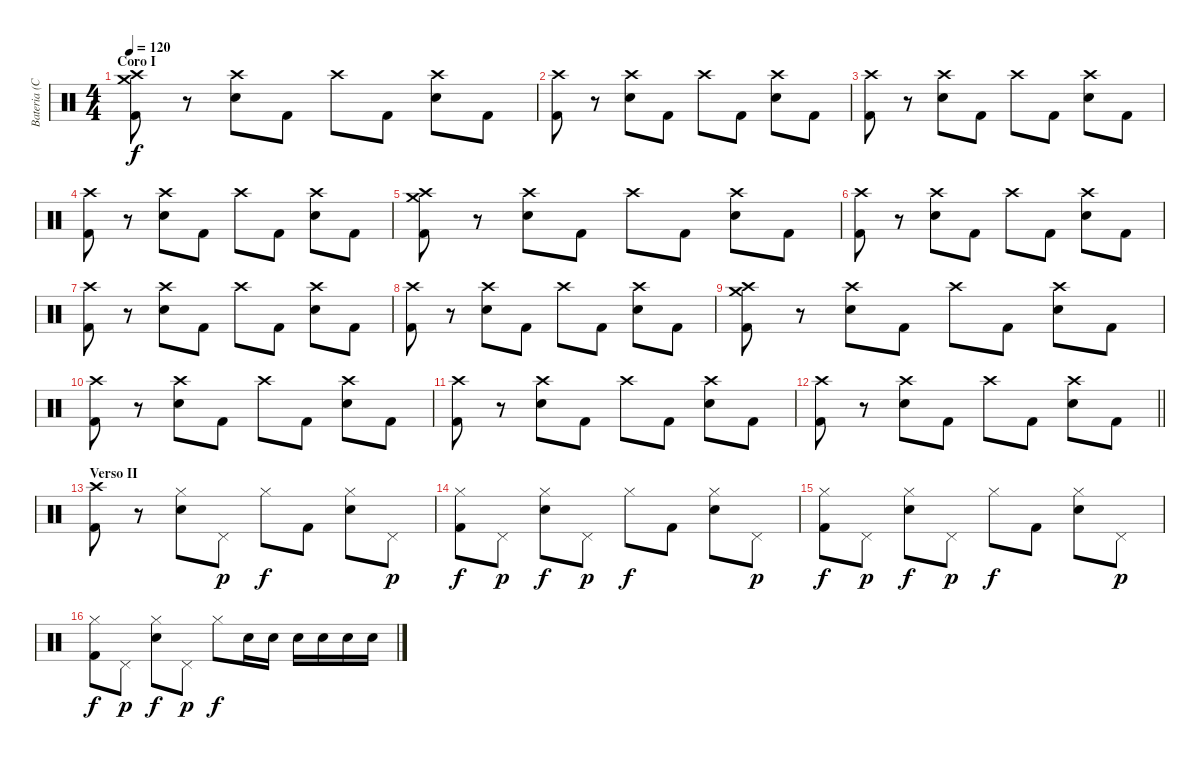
\track ("Bateria (Ciro)" "Bateria (C") {instrument percussion}
\staff {score}
\articulation defaults
\ts (4 4)
\section ("" "Coro I")
\tempo 120
\clef neutral
\ks c
("Crash medium (hit)" "Crash high (hit)" "Kick (hit) 2").8{dy f} r.8 ("Crash high (hit)" "Snare (hit) 2").8 "Kick (hit) 2".8 "Crash high (hit)".8 "Kick (hit) 2".8 ("Crash high (hit)" "Snare (hit) 2").8 "Kick (hit) 2".8 |
("Crash high (hit)" "Kick (hit) 2").8 r.8 ("Crash high (hit)" "Snare (hit) 2").8 "Kick (hit) 2".8 "Crash high (hit)".8 "Kick (hit) 2".8 ("Crash high (hit)" "Snare (hit) 2").8 "Kick (hit) 2".8 |
("Crash high (hit)" "Kick (hit) 2").8 r.8 ("Crash high (hit)" "Snare (hit) 2").8 "Kick (hit) 2".8 "Crash high (hit)".8 "Kick (hit) 2".8 ("Crash high (hit)" "Snare (hit) 2").8 "Kick (hit) 2".8 |
("Crash high (hit)" "Kick (hit) 2").8 r.8 ("Crash high (hit)" "Snare (hit) 2").8 "Kick (hit) 2".8 "Crash high (hit)".8 "Kick (hit) 2".8 ("Crash high (hit)" "Snare (hit) 2").8 "Kick (hit) 2".8 |
("Crash medium (hit)" "Crash high (hit)" "Kick (hit) 2").8 r.8 ("Crash high (hit)" "Snare (hit) 2").8 "Kick (hit) 2".8 "Crash high (hit)".8 "Kick (hit) 2".8 ("Crash high (hit)" "Snare (hit) 2").8 "Kick (hit) 2".8 |
("Crash high (hit)" "Kick (hit) 2").8 r.8 ("Crash high (hit)" "Snare (hit) 2").8 "Kick (hit) 2".8 "Crash high (hit)".8 "Kick (hit) 2".8 ("Crash high (hit)" "Snare (hit) 2").8 "Kick (hit) 2".8 |
("Crash high (hit)" "Kick (hit) 2").8 r.8 ("Crash high (hit)" "Snare (hit) 2").8 "Kick (hit) 2".8 "Crash high (hit)".8 "Kick (hit) 2".8 ("Crash high (hit)" "Snare (hit) 2").8 "Kick (hit) 2".8 |
("Crash high (hit)" "Kick (hit) 2").8 r.8 ("Crash high (hit)" "Snare (hit) 2").8 "Kick (hit) 2".8 "Crash high (hit)".8 "Kick (hit) 2".8 ("Crash high (hit)" "Snare (hit) 2").8 "Kick (hit) 2".8 |
("Crash medium (hit)" "Crash high (hit)" "Kick (hit) 2").8 r.8 ("Crash high (hit)" "Snare (hit) 2").8 "Kick (hit) 2".8 "Crash high (hit)".8 "Kick (hit) 2".8 ("Crash high (hit)" "Snare (hit) 2").8 "Kick (hit) 2".8 |
("Crash high (hit)" "Kick (hit) 2").8 r.8 ("Crash high (hit)" "Snare (hit) 2").8 "Kick (hit) 2".8 "Crash high (hit)".8 "Kick (hit) 2".8 ("Crash high (hit)" "Snare (hit) 2").8 "Kick (hit) 2".8 |
("Crash high (hit)" "Kick (hit) 2").8 r.8 ("Crash high (hit)" "Snare (hit) 2").8 "Kick (hit) 2".8 "Crash high (hit)".8 "Kick (hit) 2".8 ("Crash high (hit)" "Snare (hit) 2").8 "Kick (hit) 2".8 |
\barLineRight lightlight
("Crash high (hit)" "Kick (hit) 2").8 r.8 ("Crash high (hit)" "Snare (hit) 2").8 "Kick (hit) 2".8 "Crash high (hit)".8 "Kick (hit) 2".8 ("Crash high (hit)" "Snare (hit) 2").8 "Kick (hit) 2".8 |
\section ("" "Verso II")
("Crash high (hit)" "Kick (hit) 2").8 r.8 ("Hi-Hat (closed)" "Snare (hit) 2").8 "Pedal Hi-Hat (hit)".8{dy p} "Hi-Hat (closed)".8{dy f} "Kick (hit) 2".8 ("Hi-Hat (closed)" "Snare (hit) 2").8 "Pedal Hi-Hat (hit)".8{dy p} |
("Hi-Hat (closed)" "Kick (hit) 2").8{dy f} "Pedal Hi-Hat (hit)".8{dy p} ("Hi-Hat (closed)" "Snare (hit) 2").8{dy f} "Pedal Hi-Hat (hit)".8{dy p} "Hi-Hat (closed)".8{dy f} "Kick (hit) 2".8 ("Hi-Hat (closed)" "Snare (hit) 2").8 "Pedal Hi-Hat (hit)".8{dy p} |
("Hi-Hat (closed)" "Kick (hit) 2").8{dy f} "Pedal Hi-Hat (hit)".8{dy p} ("Hi-Hat (closed)" "Snare (hit) 2").8{dy f} "Pedal Hi-Hat (hit)".8{dy p} "Hi-Hat (closed)".8{dy f} "Kick (hit) 2".8 ("Hi-Hat (closed)" "Snare (hit) 2").8 "Pedal Hi-Hat (hit)".8{dy p} |
("Hi-Hat (closed)" "Kick (hit) 2").8{dy f} "Pedal Hi-Hat (hit)".8{dy p} ("Hi-Hat (closed)" "Snare (hit) 2").8{dy f} "Pedal Hi-Hat (hit)".8{dy p} "Hi-Hat (closed)".8{dy f} "Snare (hit) 2".16 "Snare (hit) 2".16 "Snare (hit) 2".16 "Snare (hit) 2".16 "Snare (hit) 2".16 "Snare (hit) 2".16
